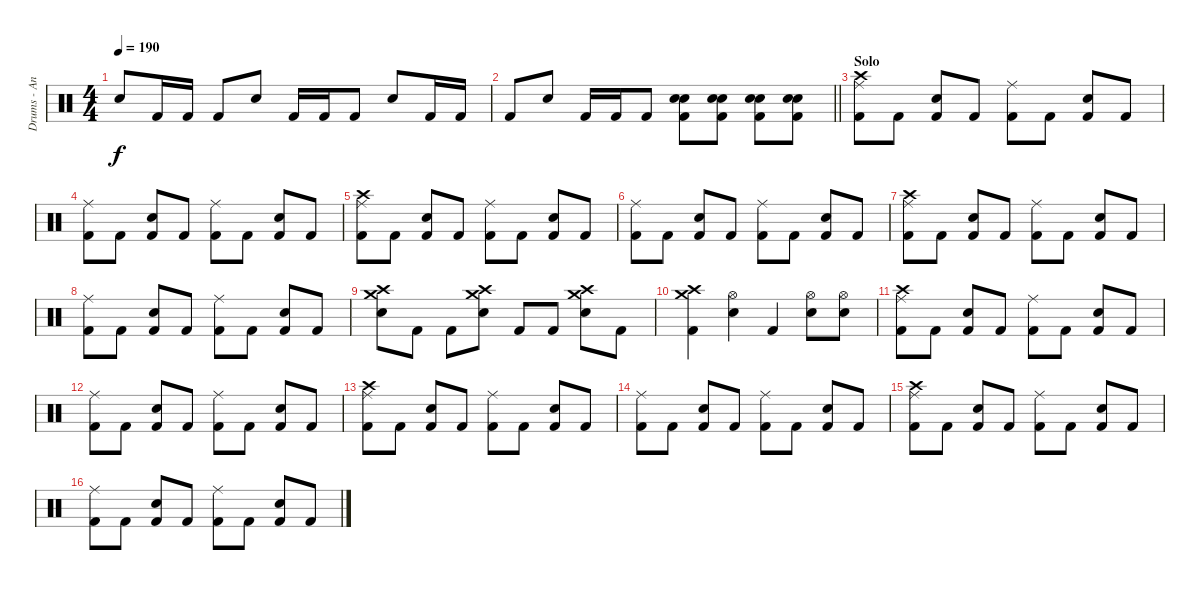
\track ("Drums - Anders Johansson" "Drums - An") {instrument percussion}
\staff {score}
\articulation defaults
\ts (4 4)
\tempo 190
\clef neutral
\ks c "Snare (hit) 2".8{dy f} "Kick (hit) 2".16 "Kick (hit) 2".16 "Kick (hit) 2".8 "Snare (hit) 2".8 "Kick (hit) 2".16 "Kick (hit) 2".16 "Kick (hit) 2".8 "Snare (hit) 2".8 "Kick (hit) 2".16 "Kick (hit) 2".16
|
\barLineRight lightlight "Kick (hit) 2".8 "Snare (hit) 2".8 "Kick (hit) 2".16 "Kick (hit) 2".16 "Kick (hit) 2".8
("Electric Snare (hit)" "Snare (hit) 2" "Kick (hit) 2").8 ("Electric Snare (hit)" "Snare (hit) 2" "Kick (hit) 2").8 ("Electric Snare (hit)" "Snare (hit) 2" "Kick (hit) 2").8 ("Electric Snare (hit)" "Snare (hit) 2" "Kick (hit) 2").8 |
\section ("" "Solo")
("Ride (middle)" "Kick (hit) 2" "Crash high (hit)").8 "Kick (hit) 2".8 ("Snare (hit) 2" "Kick (hit) 2").8 "Kick (hit) 2".8 ("Ride (middle)" "Kick (hit) 2").8 "Kick (hit) 2".8 ("Snare (hit) 2" "Kick (hit) 2").8 "Kick (hit) 2".8 |
("Ride (middle)" "Kick (hit) 2").8 "Kick (hit) 2".8 ("Snare (hit) 2" "Kick (hit) 2").8 "Kick (hit) 2".8 ("Ride (middle)" "Kick (hit) 2").8 "Kick (hit) 2".8 ("Snare (hit) 2" "Kick (hit) 2").8 "Kick (hit) 2".8 |
("Ride (middle)" "Kick (hit) 2" "Crash high (hit)").8 "Kick (hit) 2".8 ("Snare (hit) 2" "Kick (hit) 2").8 "Kick (hit) 2".8 ("Ride (middle)" "Kick (hit) 2").8 "Kick (hit) 2".8 ("Snare (hit) 2" "Kick (hit) 2").8 "Kick (hit) 2".8 |
("Ride (middle)" "Kick (hit) 2").8 "Kick (hit) 2".8 ("Snare (hit) 2" "Kick (hit) 2").8 "Kick (hit) 2".8 ("Ride (middle)" "Kick (hit) 2").8 "Kick (hit) 2".8 ("Snare (hit) 2" "Kick (hit) 2").8 "Kick (hit) 2".8 |
("Ride (middle)" "Kick (hit) 2" "Crash high (hit)").8 "Kick (hit) 2".8 ("Snare (hit) 2" "Kick (hit) 2").8 "Kick (hit) 2".8 ("Ride (middle)" "Kick (hit) 2").8 "Kick (hit) 2".8 ("Snare (hit) 2" "Kick (hit) 2").8 "Kick (hit) 2".8 |
("Ride (middle)" "Kick (hit) 2").8 "Kick (hit) 2".8 ("Snare (hit) 2" "Kick (hit) 2").8 "Kick (hit) 2".8 ("Ride (middle)" "Kick (hit) 2").8 "Kick (hit) 2".8 ("Snare (hit) 2" "Kick (hit) 2").8 "Kick (hit) 2".8 |
("Snare (hit) 2" "Crash medium (hit)" "Crash high (hit)").8 "Kick (hit) 2".8 "Kick (hit) 2".8 ("Snare (hit) 2" "Crash medium (hit)" "Crash high (hit)").8 "Kick (hit) 2".8 "Kick (hit) 2".8 ("Snare (hit) 2" "Crash medium (hit)" "Crash high (hit)").8 "Kick (hit) 2".8 |
("Kick (hit) 2" "Crash medium (hit)" "Crash high (hit)").4 ("Hi-Hat (open)" "Snare (hit) 2").4 "Kick (hit) 2".4 ("Hi-Hat (open)" "Snare (hit) 2").8 ("Hi-Hat (open)" "Snare (hit) 2").8 |
("Ride (middle)" "Kick (hit) 2" "Crash high (hit)").8 "Kick (hit) 2".8 ("Snare (hit) 2" "Kick (hit) 2").8 "Kick (hit) 2".8 ("Ride (middle)" "Kick (hit) 2").8 "Kick (hit) 2".8 ("Snare (hit) 2" "Kick (hit) 2").8 "Kick (hit) 2".8 |
("Ride (middle)" "Kick (hit) 2").8 "Kick (hit) 2".8 ("Snare (hit) 2" "Kick (hit) 2").8 "Kick (hit) 2".8 ("Ride (middle)" "Kick (hit) 2").8 "Kick (hit) 2".8 ("Snare (hit) 2" "Kick (hit) 2").8 "Kick (hit) 2".8 |
("Ride (middle)" "Kick (hit) 2" "Crash high (hit)").8 "Kick (hit) 2".8 ("Snare (hit) 2" "Kick (hit) 2").8 "Kick (hit) 2".8 ("Ride (middle)" "Kick (hit) 2").8 "Kick (hit) 2".8 ("Snare (hit) 2" "Kick (hit) 2").8 "Kick (hit) 2".8 |
("Ride (middle)" "Kick (hit) 2").8 "Kick (hit) 2".8 ("Snare (hit) 2" "Kick (hit) 2").8 "Kick (hit) 2".8 ("Ride (middle)" "Kick (hit) 2").8 "Kick (hit) 2".8 ("Snare (hit) 2" "Kick (hit) 2").8 "Kick (hit) 2".8 |
("Ride (middle)" "Kick (hit) 2" "Crash high (hit)").8 "Kick (hit) 2".8 ("Snare (hit) 2" "Kick (hit) 2").8 "Kick (hit) 2".8 ("Ride (middle)" "Kick (hit) 2").8 "Kick (hit) 2".8 ("Snare (hit) 2" "Kick (hit) 2").8 "Kick (hit) 2".8 |
("Ride (middle)" "Kick (hit) 2").8 "Kick (hit) 2".8 ("Snare (hit) 2" "Kick (hit) 2").8 "Kick (hit) 2".8 ("Ride (middle)" "Kick (hit) 2").8 "Kick (hit) 2".8 ("Snare (hit) 2" "Kick (hit) 2").8 "Kick (hit) 2".8
